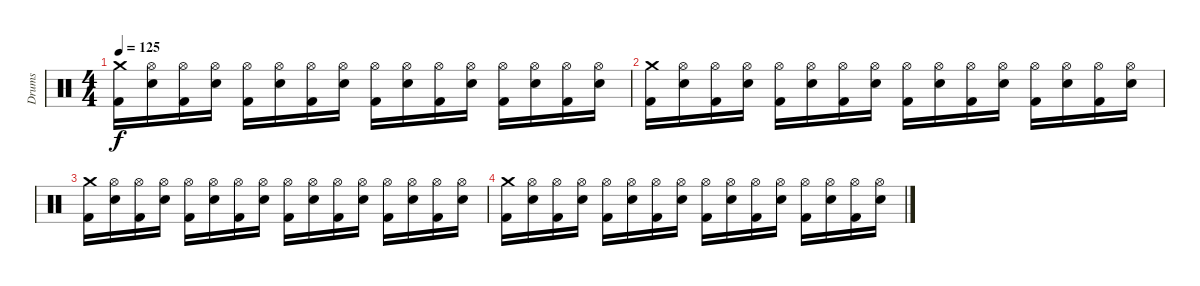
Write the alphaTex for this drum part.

\track ("Drums" "Drums") {instrument percussion}
\staff {score}
\articulation defaults
\ts (4 4)
\tempo 125
\clef neutral
\ks c
("Crash medium (hit)" "Kick (hit) 2").16{dy f} ("Hi-Hat (open)" "Electric Snare (hit)").16 ("Hi-Hat (open)" "Kick (hit) 2").16 ("Hi-Hat (open)" "Electric Snare (hit)").16 ("Hi-Hat (open)" "Kick (hit) 2").16 ("Hi-Hat (open)" "Electric Snare (hit)").16 ("Hi-Hat (open)" "Kick (hit) 2").16 ("Hi-Hat (open)" "Electric Snare (hit)").16 ("Hi-Hat (open)" "Kick (hit) 2").16 ("Hi-Hat (open)" "Electric Snare (hit)").16 ("Hi-Hat (open)" "Kick (hit) 2").16 ("Hi-Hat (open)" "Electric Snare (hit)").16 ("Hi-Hat (open)" "Kick (hit) 2").16 ("Hi-Hat (open)" "Electric Snare (hit)").16 ("Hi-Hat (open)" "Kick (hit) 2").16 ("Hi-Hat (open)" "Electric Snare (hit)").16 |
("Crash medium (hit)" "Kick (hit) 2").16 ("Hi-Hat (open)" "Electric Snare (hit)").16 ("Hi-Hat (open)" "Kick (hit) 2").16 ("Hi-Hat (open)" "Electric Snare (hit)").16 ("Hi-Hat (open)" "Kick (hit) 2").16 ("Hi-Hat (open)" "Electric Snare (hit)").16 ("Hi-Hat (open)" "Kick (hit) 2").16 ("Hi-Hat (open)" "Electric Snare (hit)").16 ("Hi-Hat (open)" "Kick (hit) 2").16 ("Hi-Hat (open)" "Electric Snare (hit)").16 ("Hi-Hat (open)" "Kick (hit) 2").16 ("Hi-Hat (open)" "Electric Snare (hit)").16 ("Hi-Hat (open)" "Kick (hit) 2").16 ("Hi-Hat (open)" "Electric Snare (hit)").16 ("Hi-Hat (open)" "Kick (hit) 2").16 ("Hi-Hat (open)" "Electric Snare (hit)").16 |
("Crash medium (hit)" "Kick (hit) 2").16 ("Hi-Hat (open)" "Electric Snare (hit)").16 ("Hi-Hat (open)" "Kick (hit) 2").16 ("Hi-Hat (open)" "Electric Snare (hit)").16 ("Hi-Hat (open)" "Kick (hit) 2").16 ("Hi-Hat (open)" "Electric Snare (hit)").16 ("Hi-Hat (open)" "Kick (hit) 2").16 ("Hi-Hat (open)" "Electric Snare (hit)").16 ("Hi-Hat (open)" "Kick (hit) 2").16 ("Hi-Hat (open)" "Electric Snare (hit)").16 ("Hi-Hat (open)" "Kick (hit) 2").16 ("Hi-Hat (open)" "Electric Snare (hit)").16 ("Hi-Hat (open)" "Kick (hit) 2").16 ("Hi-Hat (open)" "Electric Snare (hit)").16 ("Hi-Hat (open)" "Kick (hit) 2").16 ("Hi-Hat (open)" "Electric Snare (hit)").16 |
("Crash medium (hit)" "Kick (hit) 2").16 ("Hi-Hat (open)" "Electric Snare (hit)").16 ("Hi-Hat (open)" "Kick (hit) 2").16 ("Hi-Hat (open)" "Electric Snare (hit)").16 ("Hi-Hat (open)" "Kick (hit) 2").16 ("Hi-Hat (open)" "Electric Snare (hit)").16 ("Hi-Hat (open)" "Kick (hit) 2").16 ("Hi-Hat (open)" "Electric Snare (hit)").16 ("Hi-Hat (open)" "Kick (hit) 2").16 ("Hi-Hat (open)" "Electric Snare (hit)").16 ("Hi-Hat (open)" "Kick (hit) 2").16 ("Hi-Hat (open)" "Electric Snare (hit)").16 ("Hi-Hat (open)" "Kick (hit) 2").16 ("Hi-Hat (open)" "Electric Snare (hit)").16 ("Hi-Hat (open)" "Kick (hit) 2").16 ("Hi-Hat (open)" "Electric Snare (hit)").16
